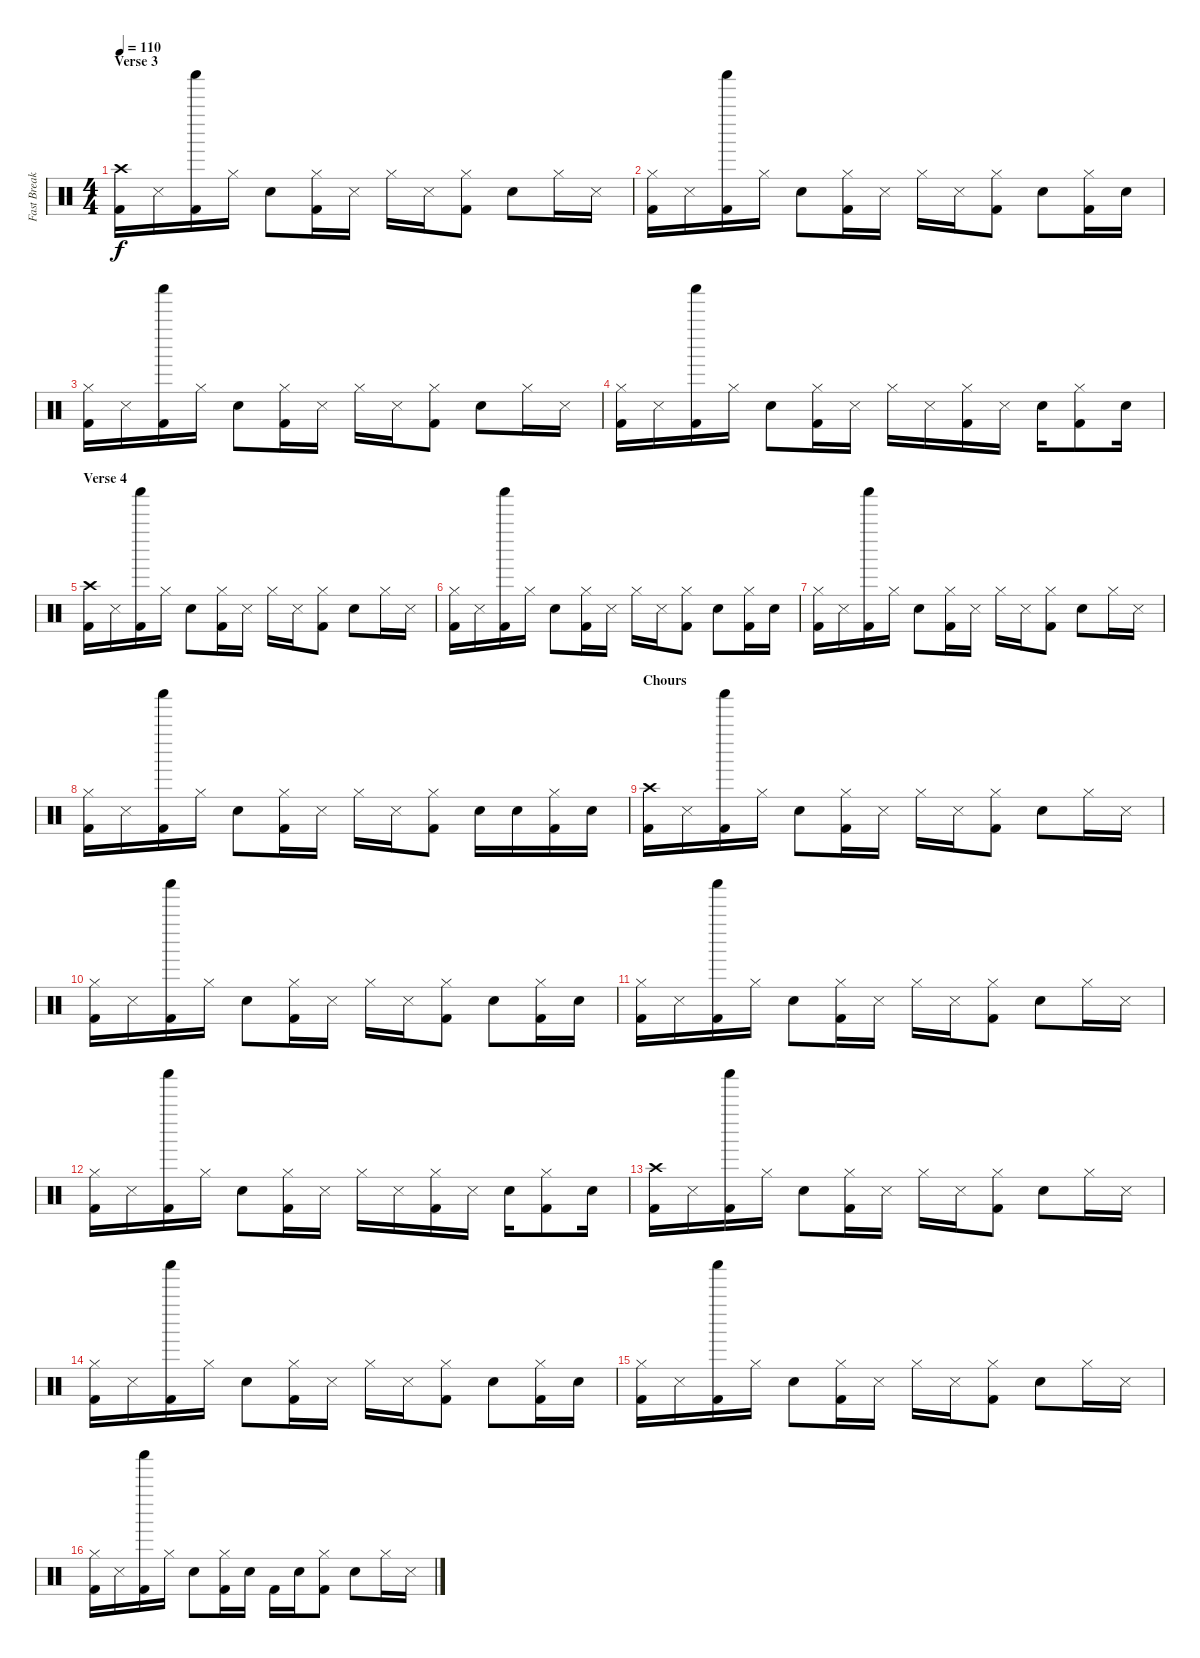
\track ("Fast Break Drums" "Fast Break") {instrument percussion}
\staff {score}
\articulation defaults
\ts (4 4)
\section ("" "Verse 3")
\tempo 110
\clef neutral
\ks c
("Kick (hit) 2" "Crash high (hit)").16{dy f} "Snare (side stick) 3".16 ("Kick (hit) 2" "Shaker (hit)").16 "Hi-Hat (closed)".16 "Snare (hit) 2".8 ("Kick (hit) 2" "Hi-Hat (closed)").16 "Snare (side stick) 3".16 "Hi-Hat (closed)".16 "Snare (side stick) 3".16 ("Kick (hit) 2" "Hi-Hat (closed)").8 "Snare (hit) 2".8 "Hi-Hat (closed)".16 "Snare (side stick) 3".16 |
("Kick (hit) 2" "Hi-Hat (closed)").16 "Snare (side stick) 3".16 ("Kick (hit) 2" "Shaker (hit)").16 "Hi-Hat (closed)".16 "Snare (hit) 2".8 ("Kick (hit) 2" "Hi-Hat (closed)").16 "Snare (side stick) 3".16 "Hi-Hat (closed)".16 "Snare (side stick) 3".16 ("Kick (hit) 2" "Hi-Hat (closed)").8 "Snare (hit) 2".8 ("Kick (hit) 2" "Hi-Hat (closed)").16 "Snare (hit) 2".16 |
("Kick (hit) 2" "Hi-Hat (closed)").16 "Snare (side stick) 3".16 ("Kick (hit) 2" "Shaker (hit)").16 "Hi-Hat (closed)".16 "Snare (hit) 2".8 ("Kick (hit) 2" "Hi-Hat (closed)").16 "Snare (side stick) 3".16 "Hi-Hat (closed)".16 "Snare (side stick) 3".16 ("Kick (hit) 2" "Hi-Hat (closed)").8 "Snare (hit) 2".8 "Hi-Hat (closed)".16 "Snare (side stick) 3".16 |
("Kick (hit) 2" "Hi-Hat (closed)").16 "Snare (side stick) 3".16 ("Kick (hit) 2" "Shaker (hit)").16 "Hi-Hat (closed)".16 "Snare (hit) 2".8 ("Kick (hit) 2" "Hi-Hat (closed)").16 "Snare (side stick) 3".16 "Hi-Hat (closed)".16 "Snare (side stick) 3".16 ("Kick (hit) 2" "Hi-Hat (closed)").16 "Snare (side stick) 3".16 "Snare (hit) 2".16 ("Kick (hit) 2" "Hi-Hat (closed)").8 "Snare (hit) 2".16 |
\section ("" "Verse 4")
("Kick (hit) 2" "Crash high (hit)").16 "Snare (side stick) 3".16 ("Kick (hit) 2" "Shaker (hit)").16 "Hi-Hat (closed)".16 "Snare (hit) 2".8 ("Kick (hit) 2" "Hi-Hat (closed)").16 "Snare (side stick) 3".16 "Hi-Hat (closed)".16 "Snare (side stick) 3".16 ("Kick (hit) 2" "Hi-Hat (closed)").8 "Snare (hit) 2".8 "Hi-Hat (closed)".16 "Snare (side stick) 3".16 |
("Kick (hit) 2" "Hi-Hat (closed)").16 "Snare (side stick) 3".16 ("Kick (hit) 2" "Shaker (hit)").16 "Hi-Hat (closed)".16 "Snare (hit) 2".8 ("Kick (hit) 2" "Hi-Hat (closed)").16 "Snare (side stick) 3".16 "Hi-Hat (closed)".16 "Snare (side stick) 3".16 ("Kick (hit) 2" "Hi-Hat (closed)").8 "Snare (hit) 2".8 ("Kick (hit) 2" "Hi-Hat (closed)").16 "Snare (hit) 2".16 |
("Kick (hit) 2" "Hi-Hat (closed)").16 "Snare (side stick) 3".16 ("Kick (hit) 2" "Shaker (hit)").16 "Hi-Hat (closed)".16 "Snare (hit) 2".8 ("Kick (hit) 2" "Hi-Hat (closed)").16 "Snare (side stick) 3".16 "Hi-Hat (closed)".16 "Snare (side stick) 3".16 ("Kick (hit) 2" "Hi-Hat (closed)").8 "Snare (hit) 2".8 "Hi-Hat (closed)".16 "Snare (side stick) 3".16 |
("Kick (hit) 2" "Hi-Hat (closed)").16 "Snare (side stick) 3".16 ("Kick (hit) 2" "Shaker (hit)").16 "Hi-Hat (closed)".16 "Snare (hit) 2".8 ("Kick (hit) 2" "Hi-Hat (closed)").16 "Snare (side stick) 3".16 "Hi-Hat (closed)".16 "Snare (side stick) 3".16 ("Kick (hit) 2" "Hi-Hat (closed)").8 "Snare (hit) 2".16 "Snare (hit) 2".16 ("Kick (hit) 2" "Hi-Hat (closed)").16 "Snare (hit) 2".16 |
\section ("" "Chours")
("Kick (hit) 2" "Crash high (hit)").16 "Snare (side stick) 3".16 ("Kick (hit) 2" "Shaker (hit)").16 "Hi-Hat (closed)".16 "Snare (hit) 2".8 ("Kick (hit) 2" "Hi-Hat (closed)").16 "Snare (side stick) 3".16 "Hi-Hat (closed)".16 "Snare (side stick) 3".16 ("Kick (hit) 2" "Hi-Hat (closed)").8 "Snare (hit) 2".8 "Hi-Hat (closed)".16 "Snare (side stick) 3".16 |
("Kick (hit) 2" "Hi-Hat (closed)").16 "Snare (side stick) 3".16 ("Kick (hit) 2" "Shaker (hit)").16 "Hi-Hat (closed)".16 "Snare (hit) 2".8 ("Kick (hit) 2" "Hi-Hat (closed)").16 "Snare (side stick) 3".16 "Hi-Hat (closed)".16 "Snare (side stick) 3".16 ("Kick (hit) 2" "Hi-Hat (closed)").8 "Snare (hit) 2".8 ("Kick (hit) 2" "Hi-Hat (closed)").16 "Snare (hit) 2".16 |
("Kick (hit) 2" "Hi-Hat (closed)").16 "Snare (side stick) 3".16 ("Kick (hit) 2" "Shaker (hit)").16 "Hi-Hat (closed)".16 "Snare (hit) 2".8 ("Kick (hit) 2" "Hi-Hat (closed)").16 "Snare (side stick) 3".16 "Hi-Hat (closed)".16 "Snare (side stick) 3".16 ("Kick (hit) 2" "Hi-Hat (closed)").8 "Snare (hit) 2".8 "Hi-Hat (closed)".16 "Snare (side stick) 3".16 |
("Kick (hit) 2" "Hi-Hat (closed)").16 "Snare (side stick) 3".16 ("Kick (hit) 2" "Shaker (hit)").16 "Hi-Hat (closed)".16 "Snare (hit) 2".8 ("Kick (hit) 2" "Hi-Hat (closed)").16 "Snare (side stick) 3".16 "Hi-Hat (closed)".16 "Snare (side stick) 3".16 ("Kick (hit) 2" "Hi-Hat (closed)").16 "Snare (side stick) 3".16 "Snare (hit) 2".16 ("Kick (hit) 2" "Hi-Hat (closed)").8 "Snare (hit) 2".16 |
("Kick (hit) 2" "Crash high (hit)").16 "Snare (side stick) 3".16 ("Kick (hit) 2" "Shaker (hit)").16 "Hi-Hat (closed)".16 "Snare (hit) 2".8 ("Kick (hit) 2" "Hi-Hat (closed)").16 "Snare (side stick) 3".16 "Hi-Hat (closed)".16 "Snare (side stick) 3".16 ("Kick (hit) 2" "Hi-Hat (closed)").8 "Snare (hit) 2".8 "Hi-Hat (closed)".16 "Snare (side stick) 3".16 |
("Kick (hit) 2" "Hi-Hat (closed)").16 "Snare (side stick) 3".16 ("Kick (hit) 2" "Shaker (hit)").16 "Hi-Hat (closed)".16 "Snare (hit) 2".8 ("Kick (hit) 2" "Hi-Hat (closed)").16 "Snare (side stick) 3".16 "Hi-Hat (closed)".16 "Snare (side stick) 3".16 ("Kick (hit) 2" "Hi-Hat (closed)").8 "Snare (hit) 2".8 ("Kick (hit) 2" "Hi-Hat (closed)").16 "Snare (hit) 2".16 |
("Kick (hit) 2" "Hi-Hat (closed)").16 "Snare (side stick) 3".16 ("Kick (hit) 2" "Shaker (hit)").16 "Hi-Hat (closed)".16 "Snare (hit) 2".8 ("Kick (hit) 2" "Hi-Hat (closed)").16 "Snare (side stick) 3".16 "Hi-Hat (closed)".16 "Snare (side stick) 3".16 ("Kick (hit) 2" "Hi-Hat (closed)").8 "Snare (hit) 2".8 "Hi-Hat (closed)".16 "Snare (side stick) 3".16 |
("Kick (hit) 2" "Hi-Hat (closed)").16 "Snare (side stick) 3".16 ("Kick (hit) 2" "Shaker (hit)").16 "Hi-Hat (closed)".16 "Snare (hit) 2".8 ("Kick (hit) 2" "Hi-Hat (closed)").16 "Snare (hit) 2".16 "Kick (hit) 2".16 "Snare (hit) 2".16 ("Kick (hit) 2" "Hi-Hat (closed)").8 "Snare (hit) 2".8 "Hi-Hat (closed)".16 "Snare (side stick) 3".16
